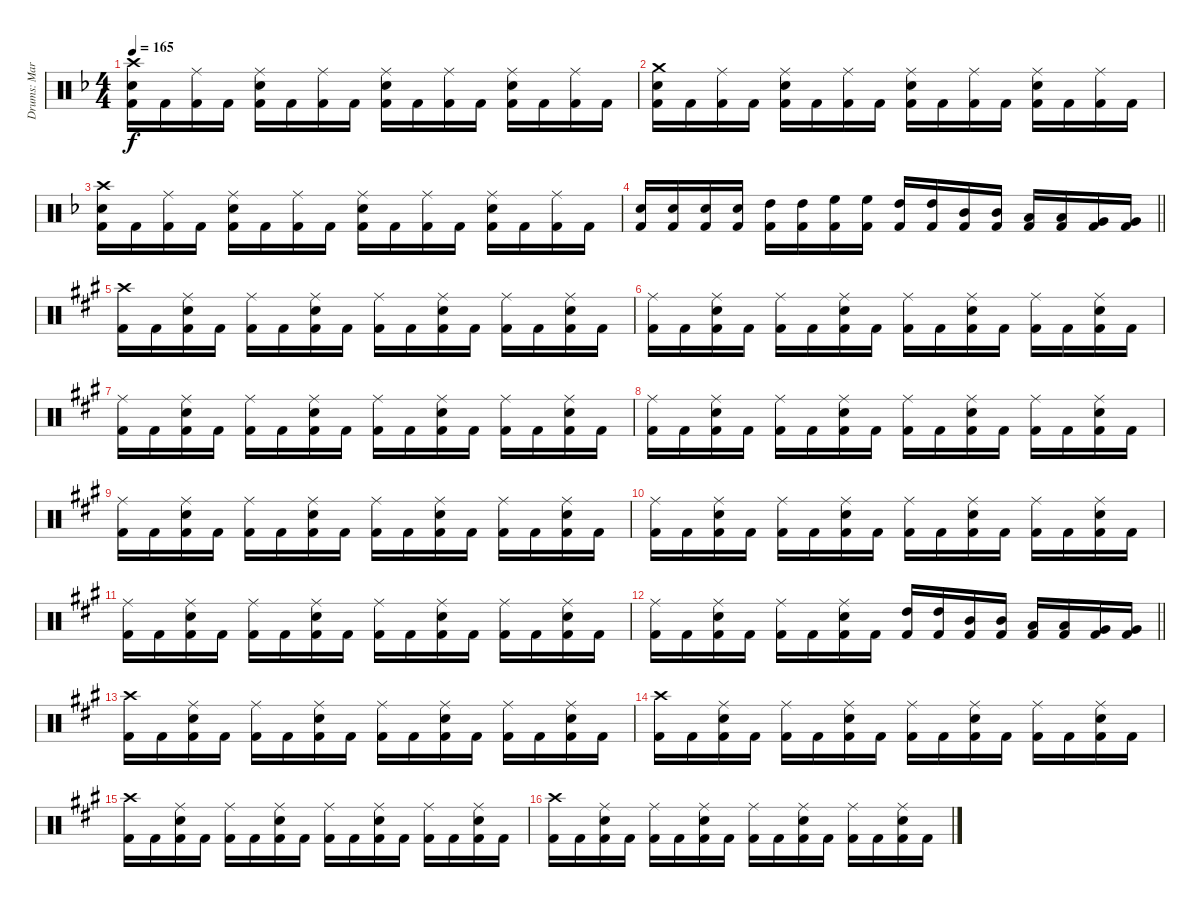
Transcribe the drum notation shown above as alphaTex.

\track ("Drums: Martin Herzinger" "Drums: Mar") {instrument percussion}
\staff {score}
\articulation defaults
\ts (4 4)
\tempo 165
\clef neutral
\ks dminor
("Crash high (hit)" "Snare (hit) 2" "Kick (hit) 2").16{dy f} "Kick (hit) 2".16 ("Ride (middle)" "Kick (hit) 2").16 "Kick (hit) 2".16 ("Ride (middle)" "Snare (hit) 2" "Kick (hit) 2").16 "Kick (hit) 2".16 ("Ride (middle)" "Kick (hit) 2").16 "Kick (hit) 2".16 ("Ride (middle)" "Snare (hit) 2" "Kick (hit) 2").16 "Kick (hit) 2".16 ("Ride (middle)" "Kick (hit) 2").16 "Kick (hit) 2".16 ("Ride (middle)" "Snare (hit) 2" "Kick (hit) 2").16 "Kick (hit) 2".16 ("Ride (middle)" "Kick (hit) 2").16 "Kick (hit) 2".16 |
("Crash medium (hit)" "Snare (hit) 2" "Kick (hit) 2").16 "Kick (hit) 2".16 ("Ride (middle)" "Kick (hit) 2").16 "Kick (hit) 2".16 ("Ride (middle)" "Snare (hit) 2" "Kick (hit) 2").16 "Kick (hit) 2".16 ("Ride (middle)" "Kick (hit) 2").16 "Kick (hit) 2".16 ("Ride (middle)" "Snare (hit) 2" "Kick (hit) 2").16 "Kick (hit) 2".16 ("Ride (middle)" "Kick (hit) 2").16 "Kick (hit) 2".16 ("Ride (middle)" "Snare (hit) 2" "Kick (hit) 2").16 "Kick (hit) 2".16 ("Ride (middle)" "Kick (hit) 2").16 "Kick (hit) 2".16 |
("Crash high (hit)" "Snare (hit) 2" "Kick (hit) 2").16 "Kick (hit) 2".16 ("Ride (middle)" "Kick (hit) 2").16 "Kick (hit) 2".16 ("Ride (middle)" "Snare (hit) 2" "Kick (hit) 2").16 "Kick (hit) 2".16 ("Ride (middle)" "Kick (hit) 2").16 "Kick (hit) 2".16 ("Ride (middle)" "Snare (hit) 2" "Kick (hit) 2").16 "Kick (hit) 2".16 ("Ride (middle)" "Kick (hit) 2").16 "Kick (hit) 2".16 ("Ride (middle)" "Snare (hit) 2" "Kick (hit) 2").16 "Kick (hit) 2".16 ("Ride (middle)" "Kick (hit) 2").16 "Kick (hit) 2".16 |
\barLineRight lightlight
("Snare (hit) 2" "Kick (hit) 2").16 ("Snare (hit) 2" "Kick (hit) 2").16 ("Snare (hit) 2" "Kick (hit) 2").16 ("Snare (hit) 2" "Kick (hit) 2").16 ("High Tom (hit)" "Kick (hit) 2").16 ("High Tom (hit)" "Kick (hit) 2").16 ("High Floor Tom (hit)" "Kick (hit) 2").16 ("High Floor Tom (hit)" "Kick (hit) 2").16 ("High Tom (hit)" "Kick (hit) 2").16 ("High Tom (hit)" "Kick (hit) 2").16 ("Mid Tom (hit)" "Kick (hit) 2").16 ("Mid Tom (hit)" "Kick (hit) 2").16 ("Low Tom (hit)" "Kick (hit) 2").16 ("Low Tom (hit)" "Kick (hit) 2").16 ("Very Low Tom (hit)" "Kick (hit) 2").16 ("Very Low Tom (hit)" "Kick (hit) 2").16 |
\ks a
("Crash high (hit)" "Kick (hit) 2").16 "Kick (hit) 2".16 ("Ride (middle)" "Snare (hit) 2" "Kick (hit) 2").16 "Kick (hit) 2".16 ("Ride (middle)" "Kick (hit) 2").16 "Kick (hit) 2".16 ("Ride (middle)" "Snare (hit) 2" "Kick (hit) 2").16 "Kick (hit) 2".16 ("Ride (middle)" "Kick (hit) 2").16 "Kick (hit) 2".16 ("Ride (middle)" "Snare (hit) 2" "Kick (hit) 2").16 "Kick (hit) 2".16 ("Ride (middle)" "Kick (hit) 2").16 "Kick (hit) 2".16 ("Ride (middle)" "Snare (hit) 2" "Kick (hit) 2").16 "Kick (hit) 2".16 |
("Ride (middle)" "Kick (hit) 2").16 "Kick (hit) 2".16 ("Ride (middle)" "Snare (hit) 2" "Kick (hit) 2").16 "Kick (hit) 2".16 ("Ride (middle)" "Kick (hit) 2").16 "Kick (hit) 2".16 ("Ride (middle)" "Snare (hit) 2" "Kick (hit) 2").16 "Kick (hit) 2".16 ("Ride (middle)" "Kick (hit) 2").16 "Kick (hit) 2".16 ("Ride (middle)" "Snare (hit) 2" "Kick (hit) 2").16 "Kick (hit) 2".16 ("Ride (middle)" "Kick (hit) 2").16 "Kick (hit) 2".16 ("Ride (middle)" "Snare (hit) 2" "Kick (hit) 2").16 "Kick (hit) 2".16 |
("Ride (middle)" "Kick (hit) 2").16 "Kick (hit) 2".16 ("Ride (middle)" "Snare (hit) 2" "Kick (hit) 2").16 "Kick (hit) 2".16 ("Ride (middle)" "Kick (hit) 2").16 "Kick (hit) 2".16 ("Ride (middle)" "Snare (hit) 2" "Kick (hit) 2").16 "Kick (hit) 2".16 ("Ride (middle)" "Kick (hit) 2").16 "Kick (hit) 2".16 ("Ride (middle)" "Snare (hit) 2" "Kick (hit) 2").16 "Kick (hit) 2".16 ("Ride (middle)" "Kick (hit) 2").16 "Kick (hit) 2".16 ("Ride (middle)" "Snare (hit) 2" "Kick (hit) 2").16 "Kick (hit) 2".16 |
("Ride (middle)" "Kick (hit) 2").16 "Kick (hit) 2".16 ("Ride (middle)" "Snare (hit) 2" "Kick (hit) 2").16 "Kick (hit) 2".16 ("Ride (middle)" "Kick (hit) 2").16 "Kick (hit) 2".16 ("Ride (middle)" "Snare (hit) 2" "Kick (hit) 2").16 "Kick (hit) 2".16 ("Ride (middle)" "Kick (hit) 2").16 "Kick (hit) 2".16 ("Ride (middle)" "Snare (hit) 2" "Kick (hit) 2").16 "Kick (hit) 2".16 ("Ride (middle)" "Kick (hit) 2").16 "Kick (hit) 2".16 ("Ride (middle)" "Snare (hit) 2" "Kick (hit) 2").16 "Kick (hit) 2".16 |
("Ride (middle)" "Kick (hit) 2").16 "Kick (hit) 2".16 ("Ride (middle)" "Snare (hit) 2" "Kick (hit) 2").16 "Kick (hit) 2".16 ("Ride (middle)" "Kick (hit) 2").16 "Kick (hit) 2".16 ("Ride (middle)" "Snare (hit) 2" "Kick (hit) 2").16 "Kick (hit) 2".16 ("Ride (middle)" "Kick (hit) 2").16 "Kick (hit) 2".16 ("Ride (middle)" "Snare (hit) 2" "Kick (hit) 2").16 "Kick (hit) 2".16 ("Ride (middle)" "Kick (hit) 2").16 "Kick (hit) 2".16 ("Ride (middle)" "Snare (hit) 2" "Kick (hit) 2").16 "Kick (hit) 2".16 |
("Ride (middle)" "Kick (hit) 2").16 "Kick (hit) 2".16 ("Ride (middle)" "Snare (hit) 2" "Kick (hit) 2").16 "Kick (hit) 2".16 ("Ride (middle)" "Kick (hit) 2").16 "Kick (hit) 2".16 ("Ride (middle)" "Snare (hit) 2" "Kick (hit) 2").16 "Kick (hit) 2".16 ("Ride (middle)" "Kick (hit) 2").16 "Kick (hit) 2".16 ("Ride (middle)" "Snare (hit) 2" "Kick (hit) 2").16 "Kick (hit) 2".16 ("Ride (middle)" "Kick (hit) 2").16 "Kick (hit) 2".16 ("Ride (middle)" "Snare (hit) 2" "Kick (hit) 2").16 "Kick (hit) 2".16 |
("Ride (middle)" "Kick (hit) 2").16 "Kick (hit) 2".16 ("Ride (middle)" "Snare (hit) 2" "Kick (hit) 2").16 "Kick (hit) 2".16 ("Ride (middle)" "Kick (hit) 2").16 "Kick (hit) 2".16 ("Ride (middle)" "Snare (hit) 2" "Kick (hit) 2").16 "Kick (hit) 2".16 ("Ride (middle)" "Kick (hit) 2").16 "Kick (hit) 2".16 ("Ride (middle)" "Snare (hit) 2" "Kick (hit) 2").16 "Kick (hit) 2".16 ("Ride (middle)" "Kick (hit) 2").16 "Kick (hit) 2".16 ("Ride (middle)" "Snare (hit) 2" "Kick (hit) 2").16 "Kick (hit) 2".16 |
\barLineRight lightlight
("Ride (middle)" "Kick (hit) 2").16 "Kick (hit) 2".16 ("Ride (middle)" "Snare (hit) 2" "Kick (hit) 2").16 "Kick (hit) 2".16 ("Ride (middle)" "Kick (hit) 2").16 "Kick (hit) 2".16 ("Ride (middle)" "Snare (hit) 2" "Kick (hit) 2").16 "Kick (hit) 2".16 ("High Tom (hit)" "Kick (hit) 2").16 ("High Tom (hit)" "Kick (hit) 2").16 ("Mid Tom (hit)" "Kick (hit) 2").16 ("Mid Tom (hit)" "Kick (hit) 2").16 ("Low Tom (hit)" "Kick (hit) 2").16 ("Low Tom (hit)" "Kick (hit) 2").16 ("Very Low Tom (hit)" "Kick (hit) 2").16 ("Very Low Tom (hit)" "Kick (hit) 2").16 |
("Crash high (hit)" "Kick (hit) 2").16 "Kick (hit) 2".16 ("Ride (middle)" "Snare (hit) 2" "Kick (hit) 2").16 "Kick (hit) 2".16 ("Ride (middle)" "Kick (hit) 2").16 "Kick (hit) 2".16 ("Ride (middle)" "Snare (hit) 2" "Kick (hit) 2").16 "Kick (hit) 2".16 ("Ride (middle)" "Kick (hit) 2").16 "Kick (hit) 2".16 ("Ride (middle)" "Snare (hit) 2" "Kick (hit) 2").16 "Kick (hit) 2".16 ("Ride (middle)" "Kick (hit) 2").16 "Kick (hit) 2".16 ("Ride (middle)" "Snare (hit) 2" "Kick (hit) 2").16 "Kick (hit) 2".16 |
("Crash high (hit)" "Kick (hit) 2").16 "Kick (hit) 2".16 ("Ride (middle)" "Snare (hit) 2" "Kick (hit) 2").16 "Kick (hit) 2".16 ("Ride (middle)" "Kick (hit) 2").16 "Kick (hit) 2".16 ("Ride (middle)" "Snare (hit) 2" "Kick (hit) 2").16 "Kick (hit) 2".16 ("Ride (middle)" "Kick (hit) 2").16 "Kick (hit) 2".16 ("Ride (middle)" "Snare (hit) 2" "Kick (hit) 2").16 "Kick (hit) 2".16 ("Ride (middle)" "Kick (hit) 2").16 "Kick (hit) 2".16 ("Ride (middle)" "Snare (hit) 2" "Kick (hit) 2").16 "Kick (hit) 2".16 |
("Crash high (hit)" "Kick (hit) 2").16 "Kick (hit) 2".16 ("Ride (middle)" "Snare (hit) 2" "Kick (hit) 2").16 "Kick (hit) 2".16 ("Ride (middle)" "Kick (hit) 2").16 "Kick (hit) 2".16 ("Ride (middle)" "Snare (hit) 2" "Kick (hit) 2").16 "Kick (hit) 2".16 ("Ride (middle)" "Kick (hit) 2").16 "Kick (hit) 2".16 ("Ride (middle)" "Snare (hit) 2" "Kick (hit) 2").16 "Kick (hit) 2".16 ("Ride (middle)" "Kick (hit) 2").16 "Kick (hit) 2".16 ("Ride (middle)" "Snare (hit) 2" "Kick (hit) 2").16 "Kick (hit) 2".16 |
("Crash high (hit)" "Kick (hit) 2").16 "Kick (hit) 2".16 ("Ride (middle)" "Snare (hit) 2" "Kick (hit) 2").16 "Kick (hit) 2".16 ("Ride (middle)" "Kick (hit) 2").16 "Kick (hit) 2".16 ("Ride (middle)" "Snare (hit) 2" "Kick (hit) 2").16 "Kick (hit) 2".16 ("Ride (middle)" "Kick (hit) 2").16 "Kick (hit) 2".16 ("Ride (middle)" "Snare (hit) 2" "Kick (hit) 2").16 "Kick (hit) 2".16 ("Ride (middle)" "Kick (hit) 2").16 "Kick (hit) 2".16 ("Ride (middle)" "Snare (hit) 2" "Kick (hit) 2").16 "Kick (hit) 2".16
